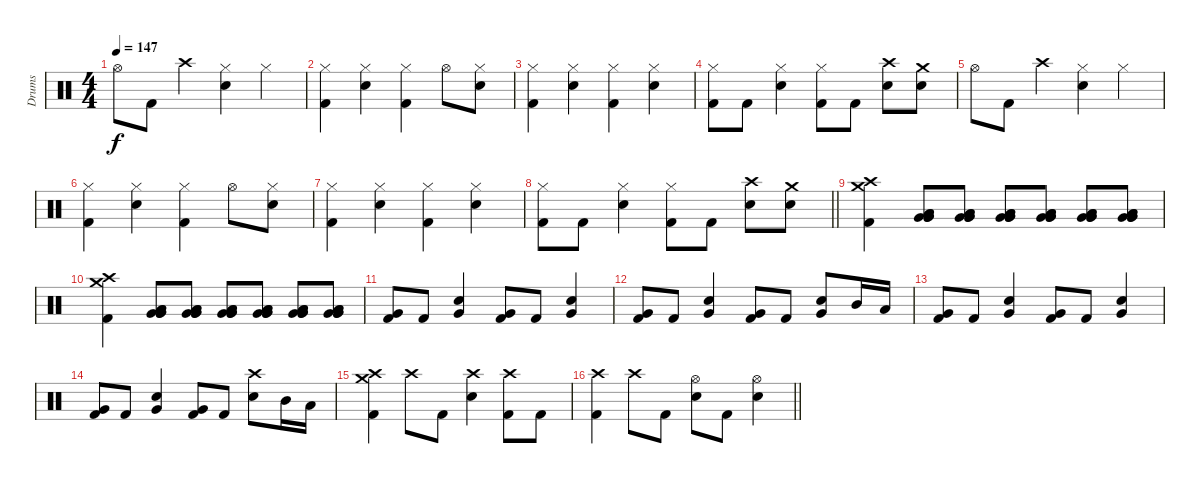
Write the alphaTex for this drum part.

\track ("Drums" "Drums") {instrument percussion}
\staff {score}
\articulation defaults
\ts (4 4)
\tempo 147
\clef neutral
\ks c "Hi-Hat (open)".8{dy f} "Kick (hit) 2".8 "Crash high (hit)".4
("Hi-Hat (closed)" "Electric Snare (hit)").4 "Hi-Hat (closed)".4 |
("Hi-Hat (closed)" "Kick (hit) 2").4 ("Hi-Hat (closed)" "Electric Snare (hit)").4 ("Hi-Hat (closed)" "Kick (hit) 2").4 "Hi-Hat (open)".8 ("Hi-Hat (closed)" "Electric Snare (hit)").8 |
("Hi-Hat (closed)" "Kick (hit) 2").4 ("Hi-Hat (closed)" "Electric Snare (hit)").4 ("Hi-Hat (closed)" "Kick (hit) 2").4 ("Hi-Hat (closed)" "Electric Snare (hit)").4 |
("Hi-Hat (closed)" "Kick (hit) 2").8 "Kick (hit) 2".8 ("Hi-Hat (closed)" "Electric Snare (hit)").4 ("Hi-Hat (closed)" "Kick (hit) 2").8 "Kick (hit) 2".8 ("Crash high (hit)" "Electric Snare (hit)").8 ("Crash medium (hit)" "Electric Snare (hit)").8 |
"Hi-Hat (open)".8 "Kick (hit) 2".8 "Crash high (hit)".4 ("Hi-Hat (closed)" "Electric Snare (hit)").4 "Hi-Hat (closed)".4 |
("Hi-Hat (closed)" "Kick (hit) 2").4 ("Hi-Hat (closed)" "Electric Snare (hit)").4 ("Hi-Hat (closed)" "Kick (hit) 2").4 "Hi-Hat (open)".8 ("Hi-Hat (closed)" "Electric Snare (hit)").8 |
("Hi-Hat (closed)" "Kick (hit) 2").4 ("Hi-Hat (closed)" "Electric Snare (hit)").4 ("Hi-Hat (closed)" "Kick (hit) 2").4 ("Hi-Hat (closed)" "Electric Snare (hit)").4 |
\barLineRight lightlight
("Hi-Hat (closed)" "Kick (hit) 2").8 "Kick (hit) 2".8 ("Hi-Hat (closed)" "Electric Snare (hit)").4 ("Hi-Hat (closed)" "Kick (hit) 2").8 "Kick (hit) 2".8 ("Crash high (hit)" "Electric Snare (hit)").8 ("Crash medium (hit)" "Electric Snare (hit)").8 |
("Crash high (hit)" "Crash medium (hit)" "Kick (hit) 2").4 ("Low Tom (hit)" "Low Tom (hit)" "Very Low Tom (hit)" "Very Low Tom (hit)" "Very Low Tom (hit)").8 ("Low Tom (hit)" "Low Tom (hit)" "Very Low Tom (hit)" "Very Low Tom (hit)" "Very Low Tom (hit)").8 ("Low Tom (hit)" "Low Tom (hit)" "Very Low Tom (hit)" "Very Low Tom (hit)" "Very Low Tom (hit)").8 ("Low Tom (hit)" "Low Tom (hit)" "Very Low Tom (hit)" "Very Low Tom (hit)" "Very Low Tom (hit)").8 ("Low Tom (hit)" "Low Tom (hit)" "Very Low Tom (hit)" "Very Low Tom (hit)" "Very Low Tom (hit)").8 ("Low Tom (hit)" "Low Tom (hit)" "Very Low Tom (hit)" "Very Low Tom (hit)" "Very Low Tom (hit)").8 |
("Crash high (hit)" "Crash medium (hit)" "Kick (hit) 2").4 ("Low Tom (hit)" "Low Tom (hit)" "Very Low Tom (hit)" "Very Low Tom (hit)" "Very Low Tom (hit)").8 ("Low Tom (hit)" "Low Tom (hit)" "Very Low Tom (hit)" "Very Low Tom (hit)" "Very Low Tom (hit)").8 ("Low Tom (hit)" "Low Tom (hit)" "Very Low Tom (hit)" "Very Low Tom (hit)" "Very Low Tom (hit)").8 ("Low Tom (hit)" "Low Tom (hit)" "Very Low Tom (hit)" "Very Low Tom (hit)" "Very Low Tom (hit)").8 ("Low Tom (hit)" "Low Tom (hit)" "Very Low Tom (hit)" "Very Low Tom (hit)" "Very Low Tom (hit)").8 ("Low Tom (hit)" "Low Tom (hit)" "Very Low Tom (hit)" "Very Low Tom (hit)" "Very Low Tom (hit)").8 |
("Very Low Tom (hit)" "Kick (hit) 2").8 "Kick (hit) 2".8 ("Very Low Tom (hit)" "Electric Snare (hit)").4 ("Very Low Tom (hit)" "Kick (hit) 2").8 "Kick (hit) 2".8 ("Very Low Tom (hit)" "Electric Snare (hit)").4 |
("Very Low Tom (hit)" "Kick (hit) 2").8 "Kick (hit) 2".8 ("Very Low Tom (hit)" "Electric Snare (hit)").4 ("Very Low Tom (hit)" "Kick (hit) 2").8 "Kick (hit) 2".8 ("Very Low Tom (hit)" "Electric Snare (hit)").8 "Mid Tom (hit)".16 "Low Tom (hit)".16 |
("Very Low Tom (hit)" "Kick (hit) 2").8 "Kick (hit) 2".8 ("Very Low Tom (hit)" "Electric Snare (hit)").4 ("Very Low Tom (hit)" "Kick (hit) 2").8 "Kick (hit) 2".8 ("Very Low Tom (hit)" "Electric Snare (hit)").4 |
("Very Low Tom (hit)" "Kick (hit) 2").8 "Kick (hit) 2".8 ("Very Low Tom (hit)" "Electric Snare (hit)").4 ("Very Low Tom (hit)" "Kick (hit) 2").8 "Kick (hit) 2".8 ("Crash high (hit)" "Electric Snare (hit)").8 "Mid Tom (hit)".16 "Low Tom (hit)".16 |
("Crash medium (hit)" "Crash high (hit)" "Kick (hit) 2").4 "Crash high (hit)".8 "Kick (hit) 2".8 ("Crash high (hit)" "Electric Snare (hit)").4 ("Crash high (hit)" "Kick (hit) 2").8 "Kick (hit) 2".8 |
\barLineRight lightlight
("Crash high (hit)" "Kick (hit) 2").4 "Crash high (hit)".8 "Kick (hit) 2".8 ("Hi-Hat (open)" "Electric Snare (hit)").8 "Kick (hit) 2".8 ("Hi-Hat (open)" "Electric Snare (hit)").4
